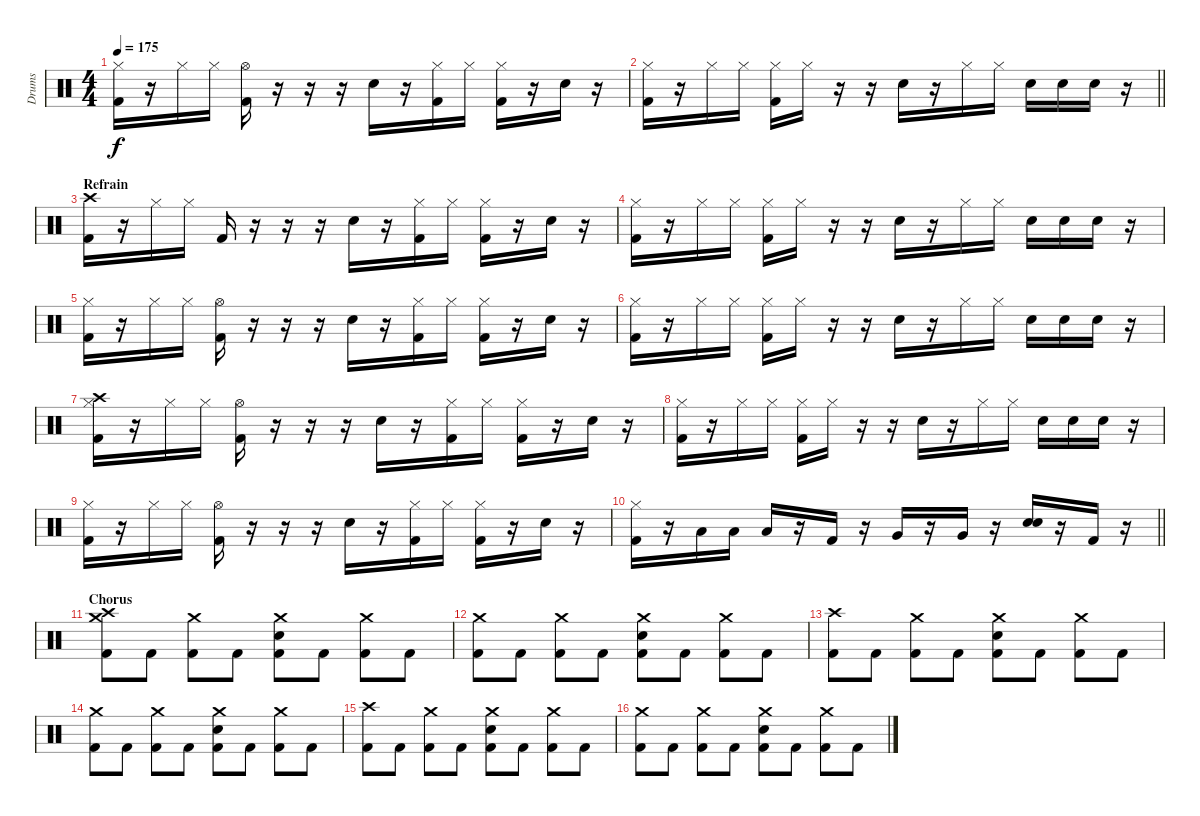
\track ("Drums" "Drums") {instrument percussion}
\staff {score}
\articulation defaults
\ts (4 4)
\tempo 175
\clef neutral
\ks c
("Hi-Hat (closed)" "Kick (hit) 2").16{dy f} r.16 "Hi-Hat (closed)".16 "Hi-Hat (closed)".16 ("Hi-Hat (open)" "Kick (hit) 2").16 r.16 r.16 r.16 "Electric Snare (hit)".16 r.16 ("Hi-Hat (closed)" "Kick (hit) 2").16 "Hi-Hat (closed)".16 ("Hi-Hat (closed)" "Kick (hit) 2").16 r.16 "Electric Snare (hit)".16 r.16 |
\barLineRight lightlight
("Hi-Hat (closed)" "Kick (hit) 2").16 r.16 "Hi-Hat (closed)".16 "Hi-Hat (closed)".16 ("Hi-Hat (closed)" "Kick (hit) 2").16 "Hi-Hat (closed)".16 r.16 r.16 "Electric Snare (hit)".16 r.16 "Hi-Hat (closed)".16 "Hi-Hat (closed)".16 "Electric Snare (hit)".16 "Electric Snare (hit)".16 "Electric Snare (hit)".16 r.16 |
\section ("" "Refrain")
("Crash high (hit)" "Kick (hit) 2").16 r.16 "Hi-Hat (closed)".16 "Hi-Hat (closed)".16 "Kick (hit) 2".16 r.16 r.16 r.16 "Electric Snare (hit)".16 r.16 ("Hi-Hat (closed)" "Kick (hit) 2").16 "Hi-Hat (closed)".16 ("Hi-Hat (closed)" "Kick (hit) 2").16 r.16 "Electric Snare (hit)".16 r.16 |
("Hi-Hat (closed)" "Kick (hit) 2").16 r.16 "Hi-Hat (closed)".16 "Hi-Hat (closed)".16 ("Hi-Hat (closed)" "Kick (hit) 2").16 "Hi-Hat (closed)".16 r.16 r.16 "Electric Snare (hit)".16 r.16 "Hi-Hat (closed)".16 "Hi-Hat (closed)".16 "Electric Snare (hit)".16 "Electric Snare (hit)".16 "Electric Snare (hit)".16 r.16 |
("Hi-Hat (closed)" "Kick (hit) 2").16 r.16 "Hi-Hat (closed)".16 "Hi-Hat (closed)".16 ("Hi-Hat (open)" "Kick (hit) 2").16 r.16 r.16 r.16 "Electric Snare (hit)".16 r.16 ("Hi-Hat (closed)" "Kick (hit) 2").16 "Hi-Hat (closed)".16 ("Hi-Hat (closed)" "Kick (hit) 2").16 r.16 "Electric Snare (hit)".16 r.16 |
("Hi-Hat (closed)" "Kick (hit) 2").16 r.16 "Hi-Hat (closed)".16 "Hi-Hat (closed)".16 ("Hi-Hat (closed)" "Kick (hit) 2").16 "Hi-Hat (closed)".16 r.16 r.16 "Electric Snare (hit)".16 r.16 "Hi-Hat (closed)".16 "Hi-Hat (closed)".16 "Electric Snare (hit)".16 "Electric Snare (hit)".16 "Electric Snare (hit)".16 r.16 |
("Crash high (hit)" "Hi-Hat (closed)" "Kick (hit) 2").16 r.16 "Hi-Hat (closed)".16 "Hi-Hat (closed)".16 ("Hi-Hat (open)" "Kick (hit) 2").16 r.16 r.16 r.16 "Electric Snare (hit)".16 r.16 ("Hi-Hat (closed)" "Kick (hit) 2").16 "Hi-Hat (closed)".16 ("Hi-Hat (closed)" "Kick (hit) 2").16 r.16 "Electric Snare (hit)".16 r.16 |
("Hi-Hat (closed)" "Kick (hit) 2").16 r.16 "Hi-Hat (closed)".16 "Hi-Hat (closed)".16 ("Hi-Hat (closed)" "Kick (hit) 2").16 "Hi-Hat (closed)".16 r.16 r.16 "Electric Snare (hit)".16 r.16 "Hi-Hat (closed)".16 "Hi-Hat (closed)".16 "Electric Snare (hit)".16 "Electric Snare (hit)".16 "Electric Snare (hit)".16 r.16 |
("Hi-Hat (closed)" "Kick (hit) 2").16 r.16 "Hi-Hat (closed)".16 "Hi-Hat (closed)".16 ("Hi-Hat (open)" "Kick (hit) 2").16 r.16 r.16 r.16 "Electric Snare (hit)".16 r.16 ("Hi-Hat (closed)" "Kick (hit) 2").16 "Hi-Hat (closed)".16 ("Hi-Hat (closed)" "Kick (hit) 2").16 r.16 "Electric Snare (hit)".16 r.16 |
\barLineRight lightlight
("Hi-Hat (closed)" "Kick (hit) 2").16 r.16 "Low Tom (hit)".16 "Low Tom (hit)".16 "Low Tom (hit)".16 r.16 "Kick (hit) 2".16 r.16 "Very Low Tom (hit)".16 r.16 "Very Low Tom (hit)".16 r.16 ("Electric Snare (hit)" "Electric Snare (hit)").16 r.16 "Kick (hit) 2".16 r.16 |
\section ("" "Chorus")
("Crash medium (hit)" "Crash high (hit)" "Kick (hit) 2").8 "Kick (hit) 2".8 ("Crash medium (hit)" "Kick (hit) 2").8 "Kick (hit) 2".8 ("Crash medium (hit)" "Electric Snare (hit)" "Kick (hit) 2").8 "Kick (hit) 2".8 ("Crash medium (hit)" "Kick (hit) 2").8 "Kick (hit) 2".8 |
("Crash medium (hit)" "Kick (hit) 2").8 "Kick (hit) 2".8 ("Crash medium (hit)" "Kick (hit) 2").8 "Kick (hit) 2".8 ("Crash medium (hit)" "Electric Snare (hit)" "Kick (hit) 2").8 "Kick (hit) 2".8 ("Crash medium (hit)" "Kick (hit) 2").8 "Kick (hit) 2".8 |
("Crash high (hit)" "Kick (hit) 2").8 "Kick (hit) 2".8 ("Crash medium (hit)" "Kick (hit) 2").8 "Kick (hit) 2".8 ("Crash medium (hit)" "Electric Snare (hit)" "Kick (hit) 2").8 "Kick (hit) 2".8 ("Crash medium (hit)" "Kick (hit) 2").8 "Kick (hit) 2".8 |
("Crash medium (hit)" "Kick (hit) 2").8 "Kick (hit) 2".8 ("Crash medium (hit)" "Kick (hit) 2").8 "Kick (hit) 2".8 ("Crash medium (hit)" "Electric Snare (hit)" "Kick (hit) 2").8 "Kick (hit) 2".8 ("Crash medium (hit)" "Kick (hit) 2").8 "Kick (hit) 2".8 |
("Crash high (hit)" "Kick (hit) 2").8 "Kick (hit) 2".8 ("Crash medium (hit)" "Kick (hit) 2").8 "Kick (hit) 2".8 ("Crash medium (hit)" "Electric Snare (hit)" "Kick (hit) 2").8 "Kick (hit) 2".8 ("Crash medium (hit)" "Kick (hit) 2").8 "Kick (hit) 2".8 |
("Crash medium (hit)" "Kick (hit) 2").8 "Kick (hit) 2".8 ("Crash medium (hit)" "Kick (hit) 2").8 "Kick (hit) 2".8 ("Crash medium (hit)" "Electric Snare (hit)" "Kick (hit) 2").8 "Kick (hit) 2".8 ("Crash medium (hit)" "Kick (hit) 2").8 "Kick (hit) 2".8
